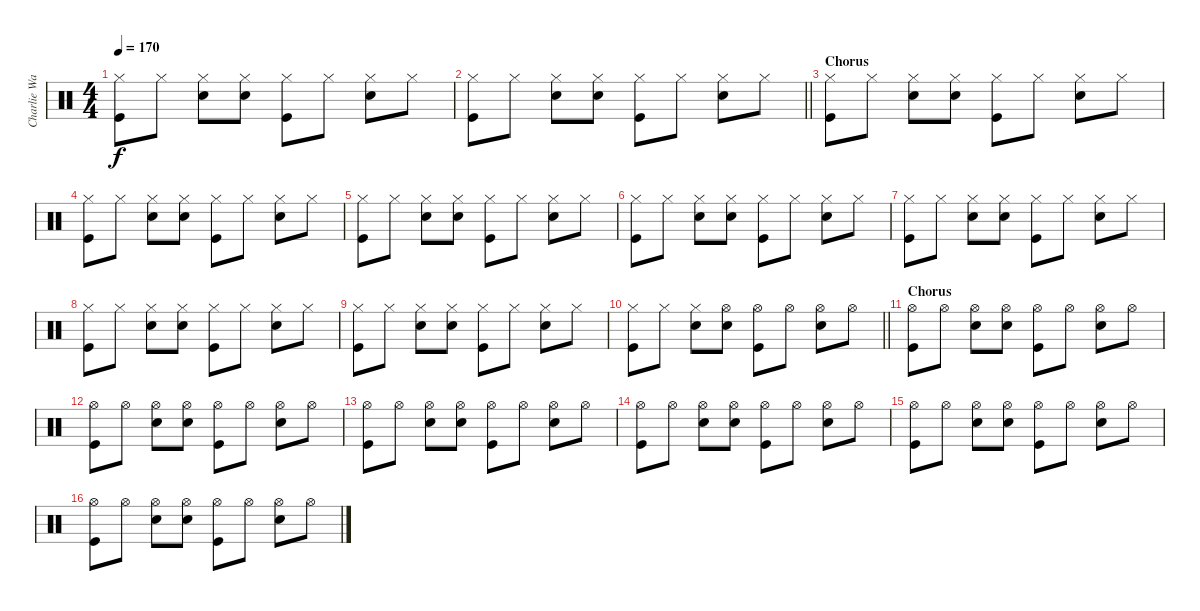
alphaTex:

\track ("Charlie Watts" "Charlie Wa") {instrument percussion}
\staff {score}
\articulation defaults
\ts (4 4)
\tempo 170
\clef neutral
\ks c
("Hi-Hat (closed)" "Kick (hit)").8{dy f} "Hi-Hat (closed)".8 ("Hi-Hat (closed)" "Snare (hit) 2").8 ("Hi-Hat (closed)" "Snare (hit) 2").8 ("Hi-Hat (closed)" "Kick (hit)").8 "Hi-Hat (closed)".8 ("Hi-Hat (closed)" "Snare (hit) 2").8 "Hi-Hat (closed)".8 |
\barLineRight lightlight
("Hi-Hat (closed)" "Kick (hit)").8 "Hi-Hat (closed)".8 ("Hi-Hat (closed)" "Snare (hit) 2").8 ("Hi-Hat (closed)" "Snare (hit) 2").8 ("Hi-Hat (closed)" "Kick (hit)").8 "Hi-Hat (closed)".8 ("Hi-Hat (closed)" "Snare (hit) 2").8 "Hi-Hat (closed)".8 |
\section ("" "Chorus")
("Hi-Hat (closed)" "Kick (hit)").8 "Hi-Hat (closed)".8 ("Hi-Hat (closed)" "Snare (hit) 2").8 ("Hi-Hat (closed)" "Snare (hit) 2").8 ("Hi-Hat (closed)" "Kick (hit)").8 "Hi-Hat (closed)".8 ("Hi-Hat (closed)" "Snare (hit) 2").8 "Hi-Hat (closed)".8 |
("Hi-Hat (closed)" "Kick (hit)").8 "Hi-Hat (closed)".8 ("Hi-Hat (closed)" "Snare (hit) 2").8 ("Hi-Hat (closed)" "Snare (hit) 2").8 ("Hi-Hat (closed)" "Kick (hit)").8 "Hi-Hat (closed)".8 ("Hi-Hat (closed)" "Snare (hit) 2").8 "Hi-Hat (closed)".8 |
("Hi-Hat (closed)" "Kick (hit)").8 "Hi-Hat (closed)".8 ("Hi-Hat (closed)" "Snare (hit) 2").8 ("Hi-Hat (closed)" "Snare (hit) 2").8 ("Hi-Hat (closed)" "Kick (hit)").8 "Hi-Hat (closed)".8 ("Hi-Hat (closed)" "Snare (hit) 2").8 "Hi-Hat (closed)".8 |
("Hi-Hat (closed)" "Kick (hit)").8 "Hi-Hat (closed)".8 ("Hi-Hat (closed)" "Snare (hit) 2").8 ("Hi-Hat (closed)" "Snare (hit) 2").8 ("Hi-Hat (closed)" "Kick (hit)").8 "Hi-Hat (closed)".8 ("Hi-Hat (closed)" "Snare (hit) 2").8 "Hi-Hat (closed)".8 |
("Hi-Hat (closed)" "Kick (hit)").8 "Hi-Hat (closed)".8 ("Hi-Hat (closed)" "Snare (hit) 2").8 ("Hi-Hat (closed)" "Snare (hit) 2").8 ("Hi-Hat (closed)" "Kick (hit)").8 "Hi-Hat (closed)".8 ("Hi-Hat (closed)" "Snare (hit) 2").8 "Hi-Hat (closed)".8 |
("Hi-Hat (closed)" "Kick (hit)").8 "Hi-Hat (closed)".8 ("Hi-Hat (closed)" "Snare (hit) 2").8 ("Hi-Hat (closed)" "Snare (hit) 2").8 ("Hi-Hat (closed)" "Kick (hit)").8 "Hi-Hat (closed)".8 ("Hi-Hat (closed)" "Snare (hit) 2").8 "Hi-Hat (closed)".8 |
("Hi-Hat (closed)" "Kick (hit)").8 "Hi-Hat (closed)".8 ("Hi-Hat (closed)" "Snare (hit) 2").8 ("Hi-Hat (closed)" "Snare (hit) 2").8 ("Hi-Hat (closed)" "Kick (hit)").8 "Hi-Hat (closed)".8 ("Hi-Hat (closed)" "Snare (hit) 2").8 "Hi-Hat (closed)".8 |
\barLineRight lightlight
("Hi-Hat (closed)" "Kick (hit)").8 "Hi-Hat (closed)".8 ("Hi-Hat (closed)" "Snare (hit) 2").8 ("Hi-Hat (open)" "Snare (hit) 2").8 ("Hi-Hat (open)" "Kick (hit)").8 "Hi-Hat (open)".8 ("Hi-Hat (open)" "Snare (hit) 2").8 "Hi-Hat (open)".8 |
\section ("" "Chorus")
("Hi-Hat (open)" "Kick (hit)").8 "Hi-Hat (open)".8 ("Hi-Hat (open)" "Snare (hit) 2").8 ("Hi-Hat (open)" "Snare (hit) 2").8 ("Hi-Hat (open)" "Kick (hit)").8 "Hi-Hat (open)".8 ("Hi-Hat (open)" "Snare (hit) 2").8 "Hi-Hat (open)".8 |
("Hi-Hat (open)" "Kick (hit)").8 "Hi-Hat (open)".8 ("Hi-Hat (open)" "Snare (hit) 2").8 ("Hi-Hat (open)" "Snare (hit) 2").8 ("Hi-Hat (open)" "Kick (hit)").8 "Hi-Hat (open)".8 ("Hi-Hat (open)" "Snare (hit) 2").8 "Hi-Hat (open)".8 |
("Hi-Hat (open)" "Kick (hit)").8 "Hi-Hat (open)".8 ("Hi-Hat (open)" "Snare (hit) 2").8 ("Hi-Hat (open)" "Snare (hit) 2").8 ("Hi-Hat (open)" "Kick (hit)").8 "Hi-Hat (open)".8 ("Hi-Hat (open)" "Snare (hit) 2").8 "Hi-Hat (open)".8 |
("Hi-Hat (open)" "Kick (hit)").8 "Hi-Hat (open)".8 ("Hi-Hat (open)" "Snare (hit) 2").8 ("Hi-Hat (open)" "Snare (hit) 2").8 ("Hi-Hat (open)" "Kick (hit)").8 "Hi-Hat (open)".8 ("Hi-Hat (open)" "Snare (hit) 2").8 "Hi-Hat (open)".8 |
("Hi-Hat (open)" "Kick (hit)").8 "Hi-Hat (open)".8 ("Hi-Hat (open)" "Snare (hit) 2").8 ("Hi-Hat (open)" "Snare (hit) 2").8 ("Hi-Hat (open)" "Kick (hit)").8 "Hi-Hat (open)".8 ("Hi-Hat (open)" "Snare (hit) 2").8 "Hi-Hat (open)".8 |
("Hi-Hat (open)" "Kick (hit)").8 "Hi-Hat (open)".8 ("Hi-Hat (open)" "Snare (hit) 2").8 ("Hi-Hat (open)" "Snare (hit) 2").8 ("Hi-Hat (open)" "Kick (hit)").8 "Hi-Hat (open)".8 ("Hi-Hat (open)" "Snare (hit) 2").8 "Hi-Hat (open)".8
